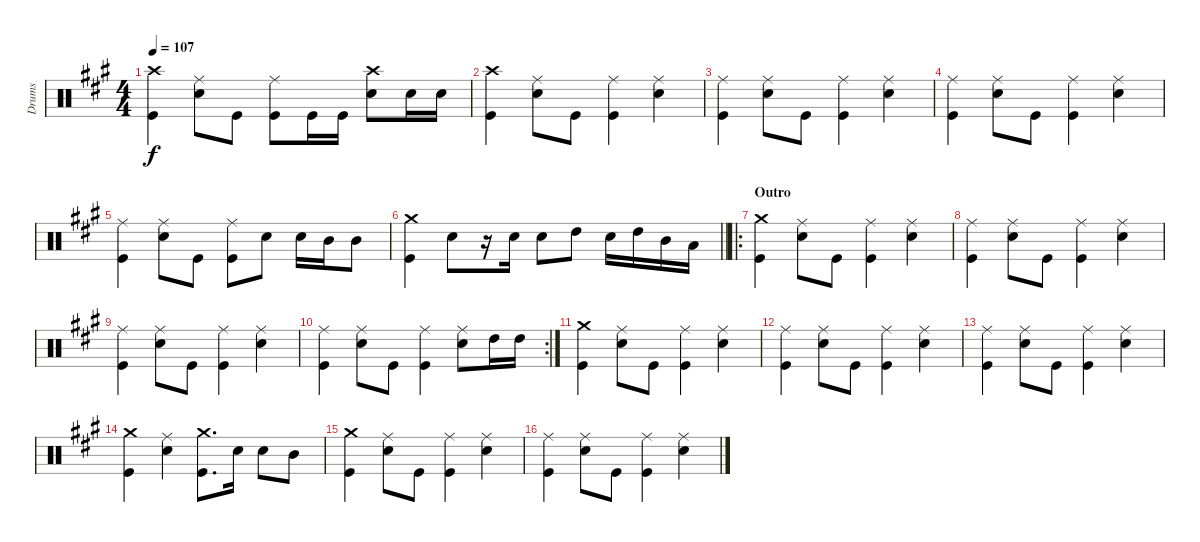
\track ("Drums" "Drums") {instrument percussion}
\staff {score}
\articulation defaults
\ts (4 4)
\tempo 107
\clef neutral
\ks a
("Crash high (hit)" "Kick (hit)").4{dy f} ("Ride (middle)" "Snare (hit) 2").8 "Kick (hit)".8 ("Ride (middle)" "Kick (hit)").8 "Kick (hit)".16 "Kick (hit)".16 ("Crash high (hit)" "Snare (hit) 2").8 "Snare (hit) 2".16 "Snare (hit) 2".16 |
("Crash high (hit)" "Kick (hit)").4 ("Ride (middle)" "Snare (hit) 2").8 "Kick (hit)".8 ("Ride (middle)" "Kick (hit)").4 ("Ride (middle)" "Snare (hit) 2").4 |
("Ride (middle)" "Kick (hit)").4 ("Ride (middle)" "Snare (hit) 2").8 "Kick (hit)".8 ("Ride (middle)" "Kick (hit)").4 ("Ride (middle)" "Snare (hit) 2").4 |
("Ride (middle)" "Kick (hit)").4 ("Ride (middle)" "Snare (hit) 2").8 "Kick (hit)".8 ("Ride (middle)" "Kick (hit)").4 ("Ride (middle)" "Snare (hit) 2").4 |
("Ride (middle)" "Kick (hit)").4 ("Ride (middle)" "Snare (hit) 2").8 "Kick (hit)".8 ("Ride (middle)" "Kick (hit)").8 "Snare (hit) 2".8 "Snare (hit) 2".16 "Mid Tom (hit)".16 "Mid Tom (hit)".8 |
\barLineRight lightlight
("Crash medium (hit)" "Kick (hit)").4 "Snare (hit) 2".8 r.16 "Snare (hit) 2".16 "Snare (hit) 2".8 "High Tom (hit)".8 "Snare (hit) 2".16 "High Tom (hit)".16 "Mid Tom (hit)".16 "Low Tom (hit)".16 |
\ro
\section ("" "Outro")
("Crash medium (hit)" "Kick (hit)").4 ("Ride (middle)" "Snare (hit) 2").8 "Kick (hit)".8 ("Ride (middle)" "Kick (hit)").4 ("Ride (middle)" "Snare (hit) 2").4 |
("Ride (middle)" "Kick (hit)").4 ("Ride (middle)" "Snare (hit) 2").8 "Kick (hit)".8 ("Ride (middle)" "Kick (hit)").4 ("Ride (middle)" "Snare (hit) 2").4 |
("Ride (middle)" "Kick (hit)").4 ("Ride (middle)" "Snare (hit) 2").8 "Kick (hit)".8 ("Ride (middle)" "Kick (hit)").4 ("Ride (middle)" "Snare (hit) 2").4 |
\rc 2
("Ride (middle)" "Kick (hit)").4 ("Ride (middle)" "Snare (hit) 2").8 "Kick (hit)".8 ("Ride (middle)" "Kick (hit)").4 ("Ride (middle)" "Snare (hit) 2").8 "High Tom (hit)".16 "High Tom (hit)".16 |
("Crash medium (hit)" "Kick (hit)").4 ("Ride (middle)" "Snare (hit) 2").8 "Kick (hit)".8 ("Ride (middle)" "Kick (hit)").4 ("Ride (middle)" "Snare (hit) 2").4 |
("Ride (middle)" "Kick (hit)").4 ("Ride (middle)" "Snare (hit) 2").8 "Kick (hit)".8 ("Ride (middle)" "Kick (hit)").4 ("Ride (middle)" "Snare (hit) 2").4 |
("Ride (middle)" "Kick (hit)").4 ("Ride (middle)" "Snare (hit) 2").8 "Kick (hit)".8 ("Ride (middle)" "Kick (hit)").4 ("Ride (middle)" "Snare (hit) 2").4 |
("Crash medium (hit)" "Kick (hit)").4 ("Ride (middle)" "Snare (hit) 2").4 ("Crash medium (hit)" "Kick (hit)").8{d} "Snare (hit) 2".16 "Snare (hit) 2".8 "Mid Tom (hit)".8 |
("Crash medium (hit)" "Kick (hit)").4 ("Ride (middle)" "Snare (hit) 2").8 "Kick (hit)".8 ("Ride (middle)" "Kick (hit)").4 ("Ride (middle)" "Snare (hit) 2").4 |
("Ride (middle)" "Kick (hit)").4 ("Ride (middle)" "Snare (hit) 2").8 "Kick (hit)".8 ("Ride (middle)" "Kick (hit)").4 ("Ride (middle)" "Snare (hit) 2").4
